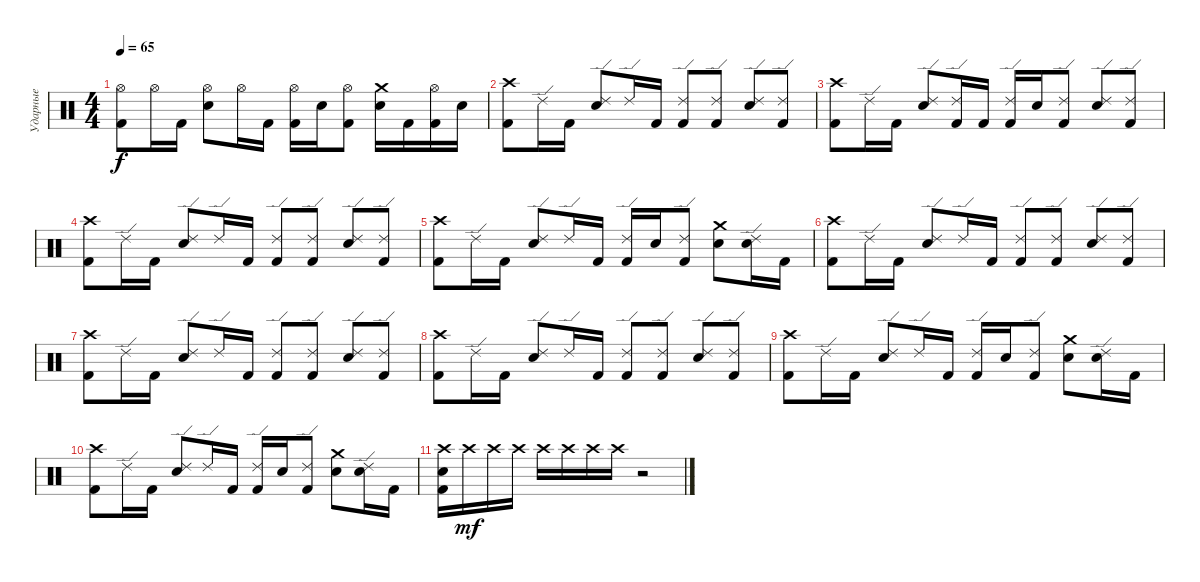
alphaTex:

\track ("Ударные" "Ударные") {instrument percussion}
\staff {score}
\articulation defaults
\ts (4 4)
\tempo 65
\clef neutral
\ks c
("Hi-Hat (open)" "Kick (hit) 2").8{dy f} "Hi-Hat (open)".16 "Kick (hit) 2".16 ("Hi-Hat (open)" "Electric Snare (hit)").8 "Hi-Hat (open)".16 "Kick (hit) 2".16 ("Hi-Hat (open)" "Kick (hit) 2").16 "Electric Snare (hit)".16 ("Hi-Hat (open)" "Kick (hit) 2").8 ("Crash medium (hit)" "Electric Snare (hit)").16 "Kick (hit) 2".16 ("Hi-Hat (open)" "Kick (hit) 2").16 "Electric Snare (hit)".16 |
("Crash high (hit)" "Kick (hit) 2").8 "Ride (edge) 2".16 "Kick (hit) 2".16 ("Ride (edge) 2" "Electric Snare (hit)").8 "Ride (edge) 2".16 "Kick (hit) 2".16 ("Ride (edge) 2" "Kick (hit) 2").8 ("Ride (edge) 2" "Kick (hit) 2").8 ("Ride (edge) 2" "Electric Snare (hit)").8 ("Ride (edge) 2" "Kick (hit) 2").8 |
("Crash high (hit)" "Kick (hit) 2").8 "Ride (edge) 2".16 "Kick (hit) 2".16 ("Ride (edge) 2" "Electric Snare (hit)").8 ("Ride (edge) 2" "Kick (hit) 2").16 "Kick (hit) 2".16 ("Ride (edge) 2" "Kick (hit) 2").16 "Electric Snare (hit)".16 ("Ride (edge) 2" "Kick (hit) 2").8 ("Ride (edge) 2" "Electric Snare (hit)").8 ("Ride (edge) 2" "Kick (hit) 2").8 |
("Crash high (hit)" "Kick (hit) 2").8 "Ride (edge) 2".16 "Kick (hit) 2".16 ("Ride (edge) 2" "Electric Snare (hit)").8 "Ride (edge) 2".16 "Kick (hit) 2".16 ("Ride (edge) 2" "Kick (hit) 2").8 ("Ride (edge) 2" "Kick (hit) 2").8 ("Ride (edge) 2" "Electric Snare (hit)").8 ("Ride (edge) 2" "Kick (hit) 2").8 |
("Crash high (hit)" "Kick (hit) 2").8 "Ride (edge) 2".16 "Kick (hit) 2".16 ("Ride (edge) 2" "Electric Snare (hit)").8 "Ride (edge) 2".16 "Kick (hit) 2".16 ("Ride (edge) 2" "Kick (hit) 2").16 "Electric Snare (hit)".16 ("Ride (edge) 2" "Kick (hit) 2").8 ("Crash medium (hit)" "Electric Snare (hit)").8 ("Ride (edge) 2" "Electric Snare (hit)").16 "Kick (hit) 2".16 |
("Crash high (hit)" "Kick (hit) 2").8 "Ride (edge) 2".16 "Kick (hit) 2".16 ("Ride (edge) 2" "Electric Snare (hit)").8 "Ride (edge) 2".16 "Kick (hit) 2".16 ("Ride (edge) 2" "Kick (hit) 2").8 ("Ride (edge) 2" "Kick (hit) 2").8 ("Ride (edge) 2" "Electric Snare (hit)").8 ("Ride (edge) 2" "Kick (hit) 2").8 |
("Crash high (hit)" "Kick (hit) 2").8 "Ride (edge) 2".16 "Kick (hit) 2".16 ("Ride (edge) 2" "Electric Snare (hit)").8 "Ride (edge) 2".16 "Kick (hit) 2".16 ("Ride (edge) 2" "Kick (hit) 2").8 ("Ride (edge) 2" "Kick (hit) 2").8 ("Ride (edge) 2" "Electric Snare (hit)").8 ("Ride (edge) 2" "Kick (hit) 2").8 |
("Crash high (hit)" "Kick (hit) 2").8 "Ride (edge) 2".16 "Kick (hit) 2".16 ("Ride (edge) 2" "Electric Snare (hit)").8 "Ride (edge) 2".16 "Kick (hit) 2".16 ("Ride (edge) 2" "Kick (hit) 2").8 ("Ride (edge) 2" "Kick (hit) 2").8 ("Ride (edge) 2" "Electric Snare (hit)").8 ("Ride (edge) 2" "Kick (hit) 2").8 |
("Crash high (hit)" "Kick (hit) 2").8 "Ride (edge) 2".16 "Kick (hit) 2".16 ("Ride (edge) 2" "Electric Snare (hit)").8 "Ride (edge) 2".16 "Kick (hit) 2".16 ("Ride (edge) 2" "Kick (hit) 2").16 "Electric Snare (hit)".16 ("Ride (edge) 2" "Kick (hit) 2").8 ("Crash medium (hit)" "Electric Snare (hit)").8 ("Ride (edge) 2" "Electric Snare (hit)").16 "Kick (hit) 2".16 |
("Crash high (hit)" "Kick (hit) 2").8 "Ride (edge) 2".16 "Kick (hit) 2".16 ("Ride (edge) 2" "Electric Snare (hit)").8 "Ride (edge) 2".16 "Kick (hit) 2".16 ("Ride (edge) 2" "Kick (hit) 2").16 "Electric Snare (hit)".16 ("Ride (edge) 2" "Kick (hit) 2").8 ("Crash medium (hit)" "Electric Snare (hit)").8 ("Ride (edge) 2" "Electric Snare (hit)").16 "Kick (hit) 2".16 |
("Crash high (hit)" "Electric Snare (hit)" "Kick (hit) 2").16{volume 0} "Crash high (hit)".16{dy mf} "Crash high (hit)".16 "Crash high (hit)".16 "Crash high (hit)".16 "Crash high (hit)".16 "Crash high (hit)".16 "Crash high (hit)".16 r.2
